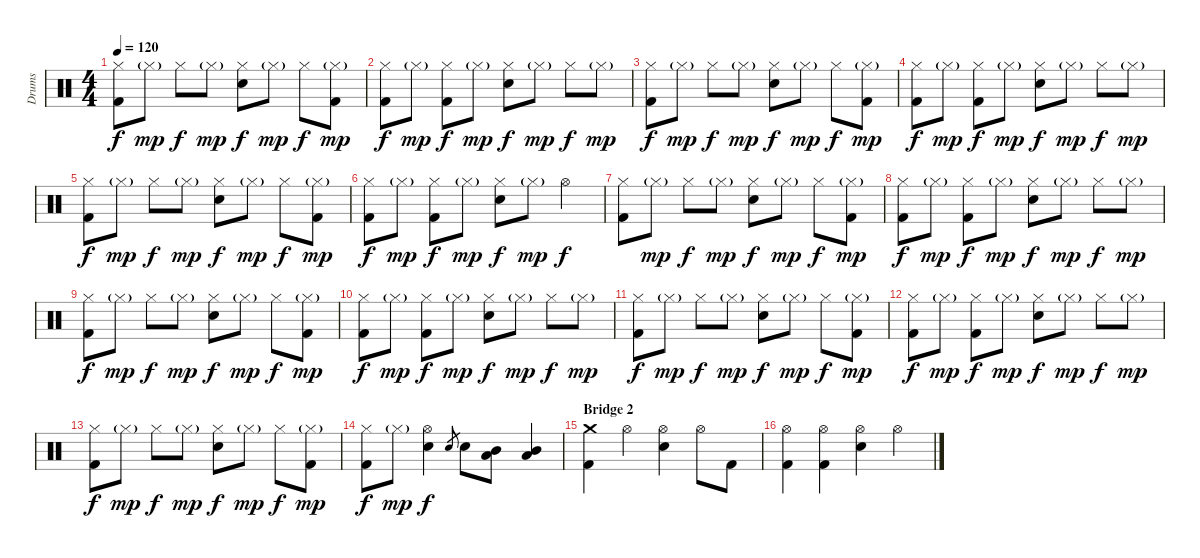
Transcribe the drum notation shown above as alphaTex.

\track ("Drums" "Drums") {instrument percussion}
\staff {score}
\articulation defaults
\ts (4 4)
\tempo 120
\clef neutral
\ks c
("Hi-Hat (closed)" "Kick (hit) 2").8{dy f} "Hi-Hat (closed)"{g}.8{dy mp} "Hi-Hat (closed)".8{dy f} "Hi-Hat (closed)"{g}.8{dy mp} ("Hi-Hat (closed)" "Snare (hit) 2").8{dy f} "Hi-Hat (closed)"{g}.8{dy mp} "Hi-Hat (closed)".8{dy f} ("Hi-Hat (closed)"{g} "Kick (hit) 2").8{dy mp} |
("Hi-Hat (closed)" "Kick (hit) 2").8{dy f} "Hi-Hat (closed)"{g}.8{dy mp} ("Hi-Hat (closed)" "Kick (hit) 2").8{dy f} "Hi-Hat (closed)"{g}.8{dy mp} ("Hi-Hat (closed)" "Snare (hit) 2").8{dy f} "Hi-Hat (closed)"{g}.8{dy mp} "Hi-Hat (closed)".8{dy f} "Hi-Hat (closed)"{g}.8{dy mp} |
("Hi-Hat (closed)" "Kick (hit) 2").8{dy f} "Hi-Hat (closed)"{g}.8{dy mp} "Hi-Hat (closed)".8{dy f} "Hi-Hat (closed)"{g}.8{dy mp} ("Hi-Hat (closed)" "Snare (hit) 2").8{dy f} "Hi-Hat (closed)"{g}.8{dy mp} "Hi-Hat (closed)".8{dy f} ("Hi-Hat (closed)"{g} "Kick (hit) 2").8{dy mp} |
("Hi-Hat (closed)" "Kick (hit) 2").8{dy f} "Hi-Hat (closed)"{g}.8{dy mp} ("Hi-Hat (closed)" "Kick (hit) 2").8{dy f} "Hi-Hat (closed)"{g}.8{dy mp} ("Hi-Hat (closed)" "Snare (hit) 2").8{dy f} "Hi-Hat (closed)"{g}.8{dy mp} "Hi-Hat (closed)".8{dy f} "Hi-Hat (closed)"{g}.8{dy mp} |
("Hi-Hat (closed)" "Kick (hit) 2").8{dy f} "Hi-Hat (closed)"{g}.8{dy mp} "Hi-Hat (closed)".8{dy f} "Hi-Hat (closed)"{g}.8{dy mp} ("Hi-Hat (closed)" "Snare (hit) 2").8{dy f} "Hi-Hat (closed)"{g}.8{dy mp} "Hi-Hat (closed)".8{dy f} ("Hi-Hat (closed)"{g} "Kick (hit) 2").8{dy mp} |
("Hi-Hat (closed)" "Kick (hit) 2").8{dy f} "Hi-Hat (closed)"{g}.8{dy mp} ("Hi-Hat (closed)" "Kick (hit) 2").8{dy f} "Hi-Hat (closed)"{g}.8{dy mp} ("Hi-Hat (closed)" "Snare (hit) 2").8{dy f} "Hi-Hat (closed)"{g}.8{dy mp} "Hi-Hat (open)".4{dy f} |
("Hi-Hat (closed)" "Kick (hit) 2").8 "Hi-Hat (closed)"{g}.8{dy mp} "Hi-Hat (closed)".8{dy f} "Hi-Hat (closed)"{g}.8{dy mp} ("Hi-Hat (closed)" "Snare (hit) 2").8{dy f} "Hi-Hat (closed)"{g}.8{dy mp} "Hi-Hat (closed)".8{dy f} ("Hi-Hat (closed)"{g} "Kick (hit) 2").8{dy mp} |
("Hi-Hat (closed)" "Kick (hit) 2").8{dy f} "Hi-Hat (closed)"{g}.8{dy mp} ("Hi-Hat (closed)" "Kick (hit) 2").8{dy f} "Hi-Hat (closed)"{g}.8{dy mp} ("Hi-Hat (closed)" "Snare (hit) 2").8{dy f} "Hi-Hat (closed)"{g}.8{dy mp} "Hi-Hat (closed)".8{dy f} "Hi-Hat (closed)"{g}.8{dy mp} |
("Hi-Hat (closed)" "Kick (hit) 2").8{dy f} "Hi-Hat (closed)"{g}.8{dy mp} "Hi-Hat (closed)".8{dy f} "Hi-Hat (closed)"{g}.8{dy mp} ("Hi-Hat (closed)" "Snare (hit) 2").8{dy f} "Hi-Hat (closed)"{g}.8{dy mp} "Hi-Hat (closed)".8{dy f} ("Hi-Hat (closed)"{g} "Kick (hit) 2").8{dy mp} |
("Hi-Hat (closed)" "Kick (hit) 2").8{dy f} "Hi-Hat (closed)"{g}.8{dy mp} ("Hi-Hat (closed)" "Kick (hit) 2").8{dy f} "Hi-Hat (closed)"{g}.8{dy mp} ("Hi-Hat (closed)" "Snare (hit) 2").8{dy f} "Hi-Hat (closed)"{g}.8{dy mp} "Hi-Hat (closed)".8{dy f} "Hi-Hat (closed)"{g}.8{dy mp} |
("Hi-Hat (closed)" "Kick (hit) 2").8{dy f} "Hi-Hat (closed)"{g}.8{dy mp} "Hi-Hat (closed)".8{dy f} "Hi-Hat (closed)"{g}.8{dy mp} ("Hi-Hat (closed)" "Snare (hit) 2").8{dy f} "Hi-Hat (closed)"{g}.8{dy mp} "Hi-Hat (closed)".8{dy f} ("Hi-Hat (closed)"{g} "Kick (hit) 2").8{dy mp} |
("Hi-Hat (closed)" "Kick (hit) 2").8{dy f} "Hi-Hat (closed)"{g}.8{dy mp} ("Hi-Hat (closed)" "Kick (hit) 2").8{dy f} "Hi-Hat (closed)"{g}.8{dy mp} ("Hi-Hat (closed)" "Snare (hit) 2").8{dy f} "Hi-Hat (closed)"{g}.8{dy mp} "Hi-Hat (closed)".8{dy f} "Hi-Hat (closed)"{g}.8{dy mp} |
("Hi-Hat (closed)" "Kick (hit) 2").8{dy f} "Hi-Hat (closed)"{g}.8{dy mp} "Hi-Hat (closed)".8{dy f} "Hi-Hat (closed)"{g}.8{dy mp} ("Hi-Hat (closed)" "Snare (hit) 2").8{dy f} "Hi-Hat (closed)"{g}.8{dy mp} "Hi-Hat (closed)".8{dy f} ("Hi-Hat (closed)"{g} "Kick (hit) 2").8{dy mp} |
("Hi-Hat (closed)" "Kick (hit) 2").8{dy f} "Hi-Hat (closed)"{g}.8{dy mp} ("Hi-Hat (open)" "Snare (hit) 2").4{dy f} "Snare (hit) 2".8{gr} "Snare (hit) 2".8 ("Mid Tom (hit)" "Low Tom (hit)").8 ("Mid Tom (hit)" "Low Tom (hit)").4 |
\section ("" "Bridge 2")
("Crash medium (hit)" "Kick (hit) 2").4 "Hi-Hat (open)".4 ("Hi-Hat (open)" "Snare (hit) 2").4 "Hi-Hat (open)".8 "Kick (hit) 2".8 |
("Hi-Hat (open)" "Kick (hit) 2").4 ("Hi-Hat (open)" "Kick (hit) 2").4 ("Hi-Hat (open)" "Snare (hit) 2").4 "Hi-Hat (open)".4
